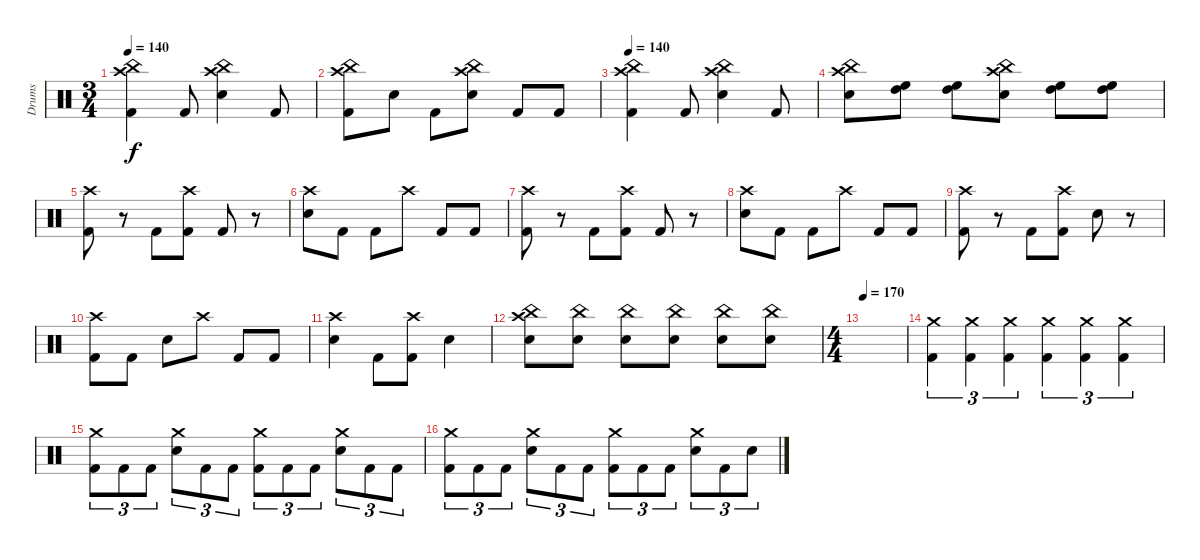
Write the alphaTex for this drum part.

\track ("Drums" "Drums") {instrument percussion}
\staff {score}
\articulation defaults
\ts (3 4)
\tempo 140
\clef neutral
\ks c
("Crash high (hit)" "China (hit)" "Kick (hit) 2").4{dy f} "Kick (hit) 2".8 ("Crash high (hit)" "China (hit)" "Electric Snare (hit)").4 "Kick (hit) 2".8 |
("Crash high (hit)" "China (hit)" "Kick (hit) 2").8 "Electric Snare (hit)".8 "Kick (hit) 2".8 ("Crash high (hit)" "China (hit)" "Electric Snare (hit)").8 "Kick (hit) 2".8 "Kick (hit) 2".8 |
\tempo 140
("Crash high (hit)" "China (hit)" "Kick (hit) 2").4 "Kick (hit) 2".8 ("Crash high (hit)" "China (hit)" "Electric Snare (hit)").4 "Kick (hit) 2".8 |
("Crash high (hit)" "China (hit)" "Electric Snare (hit)").8 ("High Floor Tom (hit)" "High Tom (hit)").8 ("High Floor Tom (hit)" "High Tom (hit)").8 ("Crash high (hit)" "China (hit)" "Electric Snare (hit)").8 ("High Floor Tom (hit)" "High Tom (hit)").8 ("High Floor Tom (hit)" "High Tom (hit)").8 |
("Crash high (hit)" "Kick (hit) 2").8 r.8 "Kick (hit) 2".8 ("Crash high (hit)" "Kick (hit) 2").8 "Kick (hit) 2".8 r.8 |
("Crash high (hit)" "Electric Snare (hit)").8 "Kick (hit) 2".8 "Kick (hit) 2".8 "Crash high (hit)".8 "Kick (hit) 2".8 "Kick (hit) 2".8 |
("Crash high (hit)" "Kick (hit) 2").8 r.8 "Kick (hit) 2".8 ("Crash high (hit)" "Kick (hit) 2").8 "Kick (hit) 2".8 r.8 |
("Crash high (hit)" "Electric Snare (hit)").8 "Kick (hit) 2".8 "Kick (hit) 2".8 "Crash high (hit)".8 "Kick (hit) 2".8 "Kick (hit) 2".8 |
("Crash high (hit)" "Kick (hit) 2").8 r.8 "Kick (hit) 2".8 ("Crash high (hit)" "Kick (hit) 2").8 "Electric Snare (hit)".8 r.8 |
("Crash high (hit)" "Kick (hit) 2").8 "Kick (hit) 2".8 "Electric Snare (hit)".8 "Crash high (hit)".8 "Kick (hit) 2".8 "Kick (hit) 2".8 |
("Crash high (hit)" "Electric Snare (hit)").4 "Kick (hit) 2".8 ("Crash high (hit)" "Kick (hit) 2").8 "Electric Snare (hit)".4 |
("Crash high (hit)" "China (hit)" "Electric Snare (hit)").8 ("China (hit)" "Electric Snare (hit)").8 ("China (hit)" "Electric Snare (hit)").8 ("China (hit)" "Electric Snare (hit)").8 ("China (hit)" "Electric Snare (hit)").8 ("China (hit)" "Electric Snare (hit)").8 |
\ts (4 4)
\tempo 170
|
("Crash medium (hit)" "Kick (hit) 2").4{tu (3 2)} ("Crash medium (hit)" "Kick (hit) 2").4{tu (3 2)} ("Crash medium (hit)" "Kick (hit) 2").4{tu (3 2)} ("Crash medium (hit)" "Kick (hit) 2").4{tu (3 2)} ("Crash medium (hit)" "Kick (hit) 2").4{tu (3 2)} ("Crash medium (hit)" "Kick (hit) 2").4{tu (3 2)} |
("Crash medium (hit)" "Kick (hit) 2").8{tu (3 2)} "Kick (hit) 2".8{tu (3 2)} "Kick (hit) 2".8{tu (3 2)} ("Crash medium (hit)" "Electric Snare (hit)").8{tu (3 2)} "Kick (hit) 2".8{tu (3 2)} "Kick (hit) 2".8{tu (3 2)} ("Crash medium (hit)" "Kick (hit) 2").8{tu (3 2)} "Kick (hit) 2".8{tu (3 2)} "Kick (hit) 2".8{tu (3 2)} ("Crash medium (hit)" "Electric Snare (hit)").8{tu (3 2)} "Kick (hit) 2".8{tu (3 2)} "Kick (hit) 2".8{tu (3 2)} |
("Crash medium (hit)" "Kick (hit) 2").8{tu (3 2)} "Kick (hit) 2".8{tu (3 2)} "Kick (hit) 2".8{tu (3 2)} ("Crash medium (hit)" "Electric Snare (hit)").8{tu (3 2)} "Kick (hit) 2".8{tu (3 2)} "Kick (hit) 2".8{tu (3 2)} ("Crash medium (hit)" "Kick (hit) 2").8{tu (3 2)} "Kick (hit) 2".8{tu (3 2)} "Kick (hit) 2".8{tu (3 2)} ("Crash medium (hit)" "Electric Snare (hit)").8{tu (3 2)} "Kick (hit) 2".8{tu (3 2)} "Electric Snare (hit)".8{tu (3 2)}
